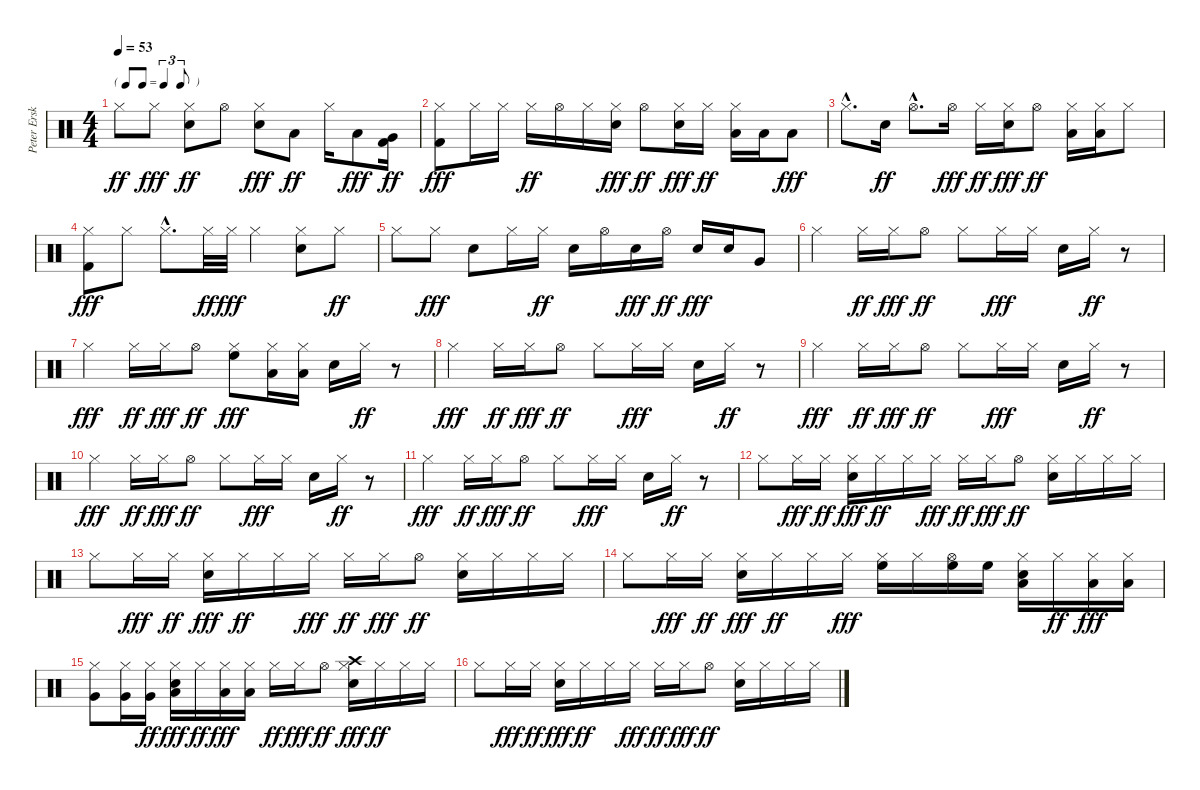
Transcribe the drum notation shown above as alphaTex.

\track ("Peter Erskine" "Peter Ersk") {instrument percussion}
\staff {score}
\articulation defaults
\ts (4 4)
\tf triplet8th
\tempo 53
\clef neutral
\ks c "Hi-Hat (closed)".8{dy ff} "Hi-Hat (closed)".8{dy fff}
("Snare (hit) 2" "Hi-Hat (closed)").8{dy ff} "Hi-Hat (open)".8 ("Snare (hit) 2" "Hi-Hat (closed)").8{dy fff} "Low Tom (hit)".8{dy ff balance 0} "Hi-Hat (closed)".16 "Low Tom (hit)".8{dy fff} ("Kick (hit) 2" "Very Low Tom (hit)").16{dy ff balance 16} |
("Kick (hit) 2" "Hi-Hat (closed)").8{dy fff balance 8} "Hi-Hat (closed)".16 "Hi-Hat (closed)".16 "Hi-Hat (closed)".16{dy ff} "Hi-Hat (open)".16 "Hi-Hat (closed)".16 ("Snare (hit) 2" "Hi-Hat (closed)").16{dy fff} "Hi-Hat (open)".8{dy ff} ("Snare (hit) 2" "Hi-Hat (closed)").16{dy fff} "Hi-Hat (closed)".16{dy ff} ("Hi-Hat (closed)" "Low Tom (hit)").16{balance 0} "Low Tom (hit)".16 "Low Tom (hit)".8{dy fff} |
"Hi-Hat (closed)"{hac}.8{d balance 8} "Snare (hit) 2".16{dy ff} "Hi-Hat (open)"{hac}.8{d} "Hi-Hat (open)".16{dy fff} "Hi-Hat (closed)".16{dy ff} ("Snare (hit) 2" "Hi-Hat (closed)").16{dy fff} "Hi-Hat (open)".8{dy ff} ("Hi-Hat (closed)" "Low Tom (hit)").16{balance 0} ("Hi-Hat (closed)" "Low Tom (hit)").16 "Hi-Hat (closed)".8{balance 8} |
("Kick (hit) 2" "Hi-Hat (closed)").8{dy fff} "Hi-Hat (closed)".8 "Hi-Hat (closed)"{hac}.8{d} "Hi-Hat (closed)".32{dy ff} "Hi-Hat (closed)".32{dy fff} "Hi-Hat (closed)".4 ("Snare (hit) 2" "Hi-Hat (closed)").8 "Hi-Hat (closed)".8{dy ff} |
"Hi-Hat (closed)".8 "Hi-Hat (closed)".8{dy fff} "Snare (hit) 2".8 "Hi-Hat (closed)".16 "Hi-Hat (closed)".16{dy ff} "Snare (hit) 2".16 "Hi-Hat (open)".16 "Snare (hit) 2".16{dy fff} "Hi-Hat (open)".16{dy ff} "Snare (hit) 2".16{dy fff} "Snare (hit) 2".16 "Very Low Tom (hit)".8{balance 16} |
"Hi-Hat (closed)".4{balance 8} "Hi-Hat (closed)".16{dy ff} "Hi-Hat (closed)".16{dy fff} "Hi-Hat (open)".8{dy ff} "Hi-Hat (closed)".8 "Hi-Hat (closed)".16{dy fff} "Hi-Hat (closed)".16 "Snare (hit) 2".16 "Hi-Hat (closed)".16{dy ff} r.8 |
"Hi-Hat (closed)".4{dy fff} "Hi-Hat (closed)".16{dy ff} "Hi-Hat (closed)".16{dy fff} "Hi-Hat (open)".8{dy ff} ("Hi-Hat (closed)" "High Floor Tom (hit)").8{dy fff balance 16} ("Hi-Hat (closed)" "Low Tom (hit)").16{balance 0} ("Hi-Hat (closed)" "Low Tom (hit)").16 "Snare (hit) 2".16{balance 8} "Hi-Hat (closed)".16{dy ff} r.8 |
"Hi-Hat (closed)".4{dy fff} "Hi-Hat (closed)".16{dy ff} "Hi-Hat (closed)".16{dy fff} "Hi-Hat (open)".8{dy ff} "Hi-Hat (closed)".8 "Hi-Hat (closed)".16{dy fff} "Hi-Hat (closed)".16 "Snare (hit) 2".16 "Hi-Hat (closed)".16{dy ff} r.8 |
"Hi-Hat (closed)".4{dy fff} "Hi-Hat (closed)".16{dy ff} "Hi-Hat (closed)".16{dy fff} "Hi-Hat (open)".8{dy ff} "Hi-Hat (closed)".8 "Hi-Hat (closed)".16{dy fff} "Hi-Hat (closed)".16 "Snare (hit) 2".16 "Hi-Hat (closed)".16{dy ff} r.8 |
"Hi-Hat (closed)".4{dy fff} "Hi-Hat (closed)".16{dy ff} "Hi-Hat (closed)".16{dy fff} "Hi-Hat (open)".8{dy ff} "Hi-Hat (closed)".8 "Hi-Hat (closed)".16{dy fff} "Hi-Hat (closed)".16 "Snare (hit) 2".16 "Hi-Hat (closed)".16{dy ff} r.8 |
"Hi-Hat (closed)".4{dy fff} "Hi-Hat (closed)".16{dy ff} "Hi-Hat (closed)".16{dy fff} "Hi-Hat (open)".8{dy ff} "Hi-Hat (closed)".8 "Hi-Hat (closed)".16{dy fff} "Hi-Hat (closed)".16 "Snare (hit) 2".16 "Hi-Hat (closed)".16{dy ff} r.8 |
"Hi-Hat (closed)".8 "Hi-Hat (closed)".16{dy fff} "Hi-Hat (closed)".16{dy ff} ("Snare (hit) 2" "Hi-Hat (closed)").16{dy fff} "Hi-Hat (closed)".16{dy ff} "Hi-Hat (closed)".16 "Hi-Hat (closed)".16{dy fff} "Hi-Hat (closed)".16{dy ff} "Hi-Hat (closed)".16{dy fff} "Hi-Hat (open)".8{dy ff} ("Snare (hit) 2" "Hi-Hat (closed)").16 "Hi-Hat (closed)".16 "Hi-Hat (closed)".16 "Hi-Hat (closed)".16 |
"Hi-Hat (closed)".8 "Hi-Hat (closed)".16{dy fff} "Hi-Hat (closed)".16{dy ff} ("Snare (hit) 2" "Hi-Hat (closed)").16{dy fff} "Hi-Hat (closed)".16{dy ff} "Hi-Hat (closed)".16 "Hi-Hat (closed)".16{dy fff} "Hi-Hat (closed)".16{dy ff} "Hi-Hat (closed)".16{dy fff} "Hi-Hat (open)".8{dy ff} ("Snare (hit) 2" "Hi-Hat (closed)").16 "Hi-Hat (closed)".16 "Hi-Hat (closed)".16 "Hi-Hat (closed)".16 |
"Hi-Hat (closed)".8 "Hi-Hat (closed)".16{dy fff} "Hi-Hat (closed)".16{dy ff} ("Snare (hit) 2" "Hi-Hat (closed)").16{dy fff} "Hi-Hat (closed)".16{dy ff} "Hi-Hat (closed)".16 "Hi-Hat (closed)".16{dy fff} ("Hi-Hat (closed)" "High Floor Tom (hit)").16{balance 16} "Hi-Hat (closed)".16 ("Hi-Hat (open)" "High Floor Tom (hit)").16 "High Floor Tom (hit)".16 ("Snare (hit) 2" "Hi-Hat (closed)" "Low Tom (hit)").16{balance 0} "Hi-Hat (closed)".16{dy ff} ("Hi-Hat (closed)" "Low Tom (hit)").16{dy fff} ("Hi-Hat (closed)" "Low Tom (hit)").16 |
("Hi-Hat (closed)" "Very Low Tom (hit)").8{balance 16} ("Hi-Hat (closed)" "Very Low Tom (hit)").16 ("Hi-Hat (closed)" "Very Low Tom (hit)").16{dy ff} ("Snare (hit) 2" "Hi-Hat (closed)" "Low Floor Tom (hit)").16{dy fff balance 0} "Hi-Hat (closed)".16{dy ff} ("Hi-Hat (closed)" "Low Floor Tom (hit)").16{dy fff} ("Hi-Hat (closed)" "Low Floor Tom (hit)").16 "Hi-Hat (closed)".16{dy ff balance 8} "Hi-Hat (closed)".16{dy fff} "Hi-Hat (open)".8{dy ff} ("Snare (hit) 2" "Hi-Hat (closed)" "Crash high (hit)").16{dy fff} "Hi-Hat (closed)".16{dy ff} "Hi-Hat (closed)".16 "Hi-Hat (closed)".16 |
"Hi-Hat (closed)".8 "Hi-Hat (closed)".16{dy fff} "Hi-Hat (closed)".16{dy ff} ("Snare (hit) 2" "Hi-Hat (closed)").16{dy fff} "Hi-Hat (closed)".16{dy ff} "Hi-Hat (closed)".16 "Hi-Hat (closed)".16{dy fff} "Hi-Hat (closed)".16{dy ff} "Hi-Hat (closed)".16{dy fff} "Hi-Hat (open)".8{dy ff} ("Snare (hit) 2" "Hi-Hat (closed)").16 "Hi-Hat (closed)".16 "Hi-Hat (closed)".16 "Hi-Hat (closed)".16
